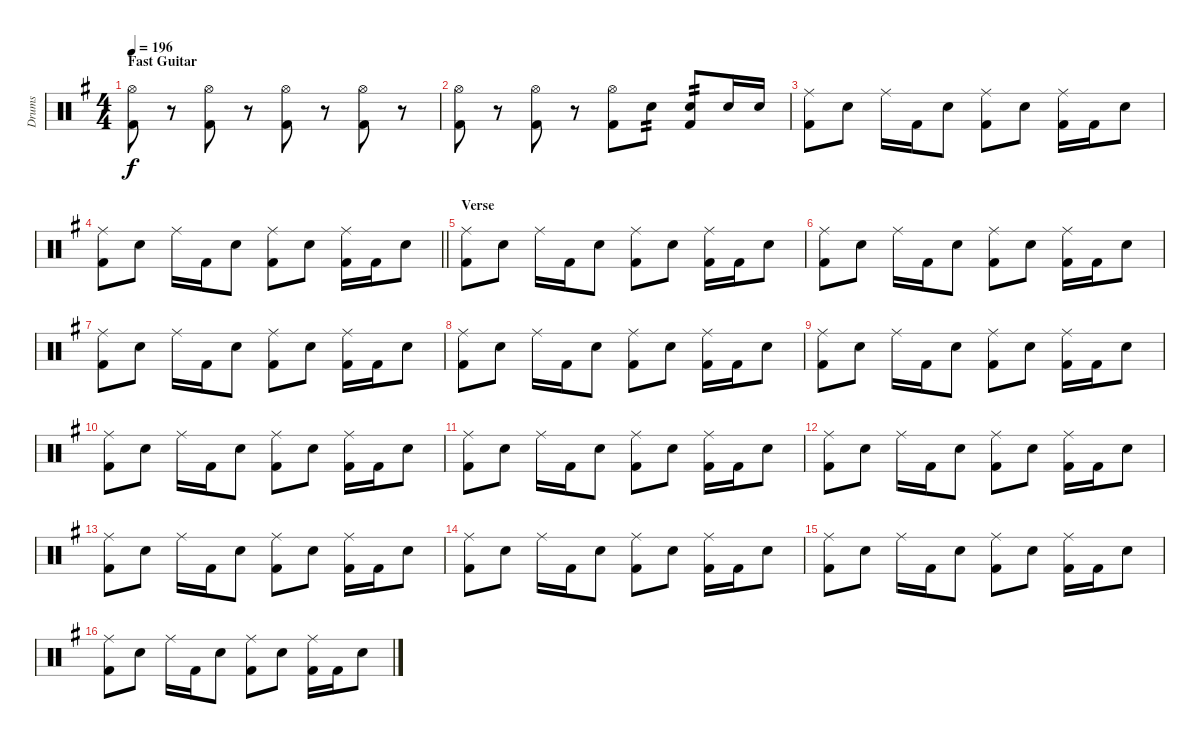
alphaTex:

\track ("Drums" "Drums") {instrument percussion}
\staff {score}
\articulation defaults
\ts (4 4)
\section ("" "Fast Guitar")
\tempo 196
\clef neutral
\ks eminor
("Hi-Hat (open)" "Kick (hit) 2").8{dy f} r.8 ("Hi-Hat (open)" "Kick (hit) 2").8 r.8 ("Hi-Hat (open)" "Kick (hit) 2").8 r.8 ("Hi-Hat (open)" "Kick (hit) 2").8 r.8 |
("Hi-Hat (open)" "Kick (hit) 2").8 r.8 ("Hi-Hat (open)" "Kick (hit) 2").8 r.8 ("Hi-Hat (open)" "Kick (hit) 2").8 "Electric Snare (hit)".8{tp 2} ("Electric Snare (hit)" "Kick (hit) 2").8{tp 2} "Electric Snare (hit)".16 "Electric Snare (hit)".16 |
("Ride (middle)" "Kick (hit) 2").8 "Electric Snare (hit)".8 "Ride (middle)".16 "Kick (hit) 2".16 "Electric Snare (hit)".8 ("Ride (middle)" "Kick (hit) 2").8 "Electric Snare (hit)".8 ("Ride (middle)" "Kick (hit) 2").16 "Kick (hit) 2".16 "Electric Snare (hit)".8 |
\barLineRight lightlight
("Ride (middle)" "Kick (hit) 2").8 "Electric Snare (hit)".8 "Ride (middle)".16 "Kick (hit) 2".16 "Electric Snare (hit)".8 ("Ride (middle)" "Kick (hit) 2").8 "Electric Snare (hit)".8 ("Ride (middle)" "Kick (hit) 2").16 "Kick (hit) 2".16 "Electric Snare (hit)".8 |
\section ("" "Verse")
("Ride (middle)" "Kick (hit) 2").8 "Electric Snare (hit)".8 "Ride (middle)".16 "Kick (hit) 2".16 "Electric Snare (hit)".8 ("Ride (middle)" "Kick (hit) 2").8 "Electric Snare (hit)".8 ("Ride (middle)" "Kick (hit) 2").16 "Kick (hit) 2".16 "Electric Snare (hit)".8 |
("Ride (middle)" "Kick (hit) 2").8 "Electric Snare (hit)".8 "Ride (middle)".16 "Kick (hit) 2".16 "Electric Snare (hit)".8 ("Ride (middle)" "Kick (hit) 2").8 "Electric Snare (hit)".8 ("Ride (middle)" "Kick (hit) 2").16 "Kick (hit) 2".16 "Electric Snare (hit)".8 |
("Ride (middle)" "Kick (hit) 2").8 "Electric Snare (hit)".8 "Ride (middle)".16 "Kick (hit) 2".16 "Electric Snare (hit)".8 ("Ride (middle)" "Kick (hit) 2").8 "Electric Snare (hit)".8 ("Ride (middle)" "Kick (hit) 2").16 "Kick (hit) 2".16 "Electric Snare (hit)".8 |
("Ride (middle)" "Kick (hit) 2").8 "Electric Snare (hit)".8 "Ride (middle)".16 "Kick (hit) 2".16 "Electric Snare (hit)".8 ("Ride (middle)" "Kick (hit) 2").8 "Electric Snare (hit)".8 ("Ride (middle)" "Kick (hit) 2").16 "Kick (hit) 2".16 "Electric Snare (hit)".8 |
("Ride (middle)" "Kick (hit) 2").8 "Electric Snare (hit)".8 "Ride (middle)".16 "Kick (hit) 2".16 "Electric Snare (hit)".8 ("Ride (middle)" "Kick (hit) 2").8 "Electric Snare (hit)".8 ("Ride (middle)" "Kick (hit) 2").16 "Kick (hit) 2".16 "Electric Snare (hit)".8 |
("Ride (middle)" "Kick (hit) 2").8 "Electric Snare (hit)".8 "Ride (middle)".16 "Kick (hit) 2".16 "Electric Snare (hit)".8 ("Ride (middle)" "Kick (hit) 2").8 "Electric Snare (hit)".8 ("Ride (middle)" "Kick (hit) 2").16 "Kick (hit) 2".16 "Electric Snare (hit)".8 |
("Ride (middle)" "Kick (hit) 2").8 "Electric Snare (hit)".8 "Ride (middle)".16 "Kick (hit) 2".16 "Electric Snare (hit)".8 ("Ride (middle)" "Kick (hit) 2").8 "Electric Snare (hit)".8 ("Ride (middle)" "Kick (hit) 2").16 "Kick (hit) 2".16 "Electric Snare (hit)".8 |
("Ride (middle)" "Kick (hit) 2").8 "Electric Snare (hit)".8 "Ride (middle)".16 "Kick (hit) 2".16 "Electric Snare (hit)".8 ("Ride (middle)" "Kick (hit) 2").8 "Electric Snare (hit)".8 ("Ride (middle)" "Kick (hit) 2").16 "Kick (hit) 2".16 "Electric Snare (hit)".8 |
("Ride (middle)" "Kick (hit) 2").8 "Electric Snare (hit)".8 "Ride (middle)".16 "Kick (hit) 2".16 "Electric Snare (hit)".8 ("Ride (middle)" "Kick (hit) 2").8 "Electric Snare (hit)".8 ("Ride (middle)" "Kick (hit) 2").16 "Kick (hit) 2".16 "Electric Snare (hit)".8 |
("Ride (middle)" "Kick (hit) 2").8 "Electric Snare (hit)".8 "Ride (middle)".16 "Kick (hit) 2".16 "Electric Snare (hit)".8 ("Ride (middle)" "Kick (hit) 2").8 "Electric Snare (hit)".8 ("Ride (middle)" "Kick (hit) 2").16 "Kick (hit) 2".16 "Electric Snare (hit)".8 |
("Ride (middle)" "Kick (hit) 2").8 "Electric Snare (hit)".8 "Ride (middle)".16 "Kick (hit) 2".16 "Electric Snare (hit)".8 ("Ride (middle)" "Kick (hit) 2").8 "Electric Snare (hit)".8 ("Ride (middle)" "Kick (hit) 2").16 "Kick (hit) 2".16 "Electric Snare (hit)".8 |
("Ride (middle)" "Kick (hit) 2").8 "Electric Snare (hit)".8 "Ride (middle)".16 "Kick (hit) 2".16 "Electric Snare (hit)".8 ("Ride (middle)" "Kick (hit) 2").8 "Electric Snare (hit)".8 ("Ride (middle)" "Kick (hit) 2").16 "Kick (hit) 2".16 "Electric Snare (hit)".8
